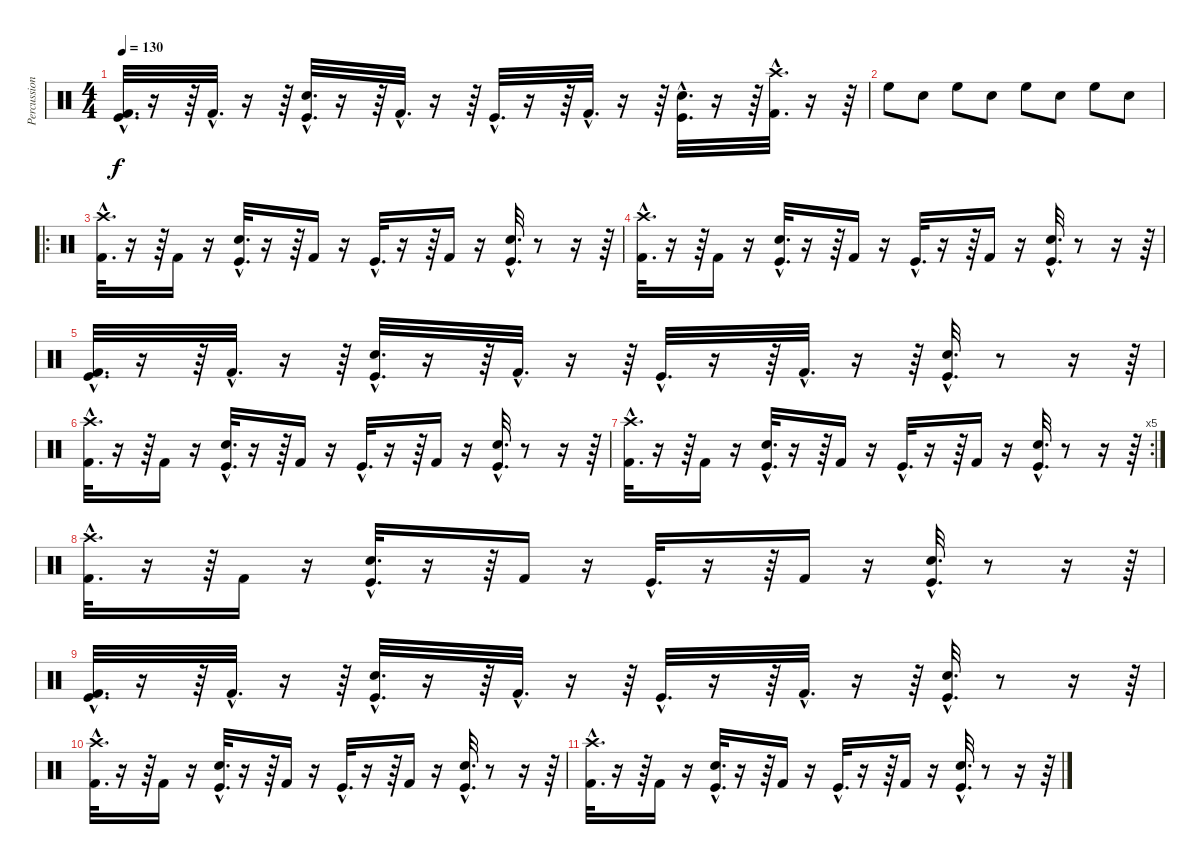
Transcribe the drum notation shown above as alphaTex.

\track ("Percussion" "Percussion") {instrument percussion}
\staff {score}
\articulation defaults
\ts (4 4)
\tempo 130
\clef neutral
\ks c
("Kick (hit)"{hac} "Kick (hit) 2"{hac}).32{d dy f} r.16 r.64 "Kick (hit) 2"{hac}.32{d} r.16 r.64 ("Snare (hit) 2"{hac} "Kick (hit)"{hac}).32{d} r.16 r.64 "Kick (hit) 2"{hac}.32{d} r.16 r.64 "Kick (hit)"{hac}.32{d} r.16 r.64 "Kick (hit) 2"{hac}.32{d} r.16 r.64 ("Snare (hit) 2"{hac} "Kick (hit)"{hac}).32{d} r.16 r.64 ("Kick (hit) 2"{hac} "Crash high (hit)"{hac}).32{d} r.16 r.64 |
"High Floor Tom (hit)".8 "Snare (hit) 2".8 "High Floor Tom (hit)".8 "Snare (hit) 2".8 "High Floor Tom (hit)".8 "Snare (hit) 2".8 "High Floor Tom (hit)".8 "Snare (hit) 2".8 |
\ro
("Kick (hit) 2"{hac} "Crash high (hit)"{hac}).32{d} r.16 r.64 "Kick (hit) 2".16 r.16 ("Kick (hit)"{hac} "Snare (hit) 2"{hac}).32{d} r.16 r.64 "Kick (hit) 2".16 r.16 "Kick (hit)"{hac}.32{d} r.16 r.64 "Kick (hit) 2".16 r.16 ("Kick (hit)"{hac} "Snare (hit) 2"{hac}).32{d} r.8 r.16 r.64 |
("Kick (hit) 2"{hac} "Crash high (hit)"{hac}).32{d} r.16 r.64 "Kick (hit) 2".16 r.16 ("Kick (hit)"{hac} "Snare (hit) 2"{hac}).32{d} r.16 r.64 "Kick (hit) 2".16 r.16 "Kick (hit)"{hac}.32{d} r.16 r.64 "Kick (hit) 2".16 r.16 ("Kick (hit)"{hac} "Snare (hit) 2"{hac}).32{d} r.8 r.16 r.64 |
("Kick (hit)"{hac} "Kick (hit) 2"{hac}).32{d} r.16 r.64 "Kick (hit) 2"{hac}.32{d} r.16 r.64 ("Snare (hit) 2"{hac} "Kick (hit)"{hac}).32{d} r.16 r.64 "Kick (hit) 2"{hac}.32{d} r.16 r.64 "Kick (hit)"{hac}.32{d} r.16 r.64 "Kick (hit) 2"{hac}.32{d} r.16 r.64 ("Snare (hit) 2"{hac} "Kick (hit)"{hac}).32{d} r.8 r.16 r.64 |
("Kick (hit) 2"{hac} "Crash high (hit)"{hac}).32{d} r.16 r.64 "Kick (hit) 2".16 r.16 ("Kick (hit)"{hac} "Snare (hit) 2"{hac}).32{d} r.16 r.64 "Kick (hit) 2".16 r.16 "Kick (hit)"{hac}.32{d} r.16 r.64 "Kick (hit) 2".16 r.16 ("Kick (hit)"{hac} "Snare (hit) 2"{hac}).32{d} r.8 r.16 r.64 |
\rc 5
("Kick (hit) 2"{hac} "Crash high (hit)"{hac}).32{d} r.16 r.64 "Kick (hit) 2".16 r.16 ("Kick (hit)"{hac} "Snare (hit) 2"{hac}).32{d} r.16 r.64 "Kick (hit) 2".16 r.16 "Kick (hit)"{hac}.32{d} r.16 r.64 "Kick (hit) 2".16 r.16 ("Kick (hit)"{hac} "Snare (hit) 2"{hac}).32{d} r.8 r.16 r.64 |
("Kick (hit) 2"{hac} "Crash high (hit)"{hac}).32{d} r.16 r.64 "Kick (hit) 2".16 r.16 ("Kick (hit)"{hac} "Snare (hit) 2"{hac}).32{d} r.16 r.64 "Kick (hit) 2".16 r.16 "Kick (hit)"{hac}.32{d} r.16 r.64 "Kick (hit) 2".16 r.16 ("Kick (hit)"{hac} "Snare (hit) 2"{hac}).32{d} r.8 r.16 r.64 |
("Kick (hit)"{hac} "Kick (hit) 2"{hac}).32{d} r.16 r.64 "Kick (hit) 2"{hac}.32{d} r.16 r.64 ("Snare (hit) 2"{hac} "Kick (hit)"{hac}).32{d} r.16 r.64 "Kick (hit) 2"{hac}.32{d} r.16 r.64 "Kick (hit)"{hac}.32{d} r.16 r.64 "Kick (hit) 2"{hac}.32{d} r.16 r.64 ("Snare (hit) 2"{hac} "Kick (hit)"{hac}).32{d} r.8 r.16 r.64 |
("Kick (hit) 2"{hac} "Crash high (hit)"{hac}).32{d} r.16 r.64 "Kick (hit) 2".16 r.16 ("Kick (hit)"{hac} "Snare (hit) 2"{hac}).32{d} r.16 r.64 "Kick (hit) 2".16 r.16 "Kick (hit)"{hac}.32{d} r.16 r.64 "Kick (hit) 2".16 r.16 ("Kick (hit)"{hac} "Snare (hit) 2"{hac}).32{d} r.8 r.16 r.64 |
("Kick (hit) 2"{hac} "Crash high (hit)"{hac}).32{d} r.16 r.64 "Kick (hit) 2".16 r.16 ("Kick (hit)"{hac} "Snare (hit) 2"{hac}).32{d} r.16 r.64 "Kick (hit) 2".16 r.16 "Kick (hit)"{hac}.32{d} r.16 r.64 "Kick (hit) 2".16 r.16 ("Kick (hit)"{hac} "Snare (hit) 2"{hac}).32{d} r.8 r.16 r.64
